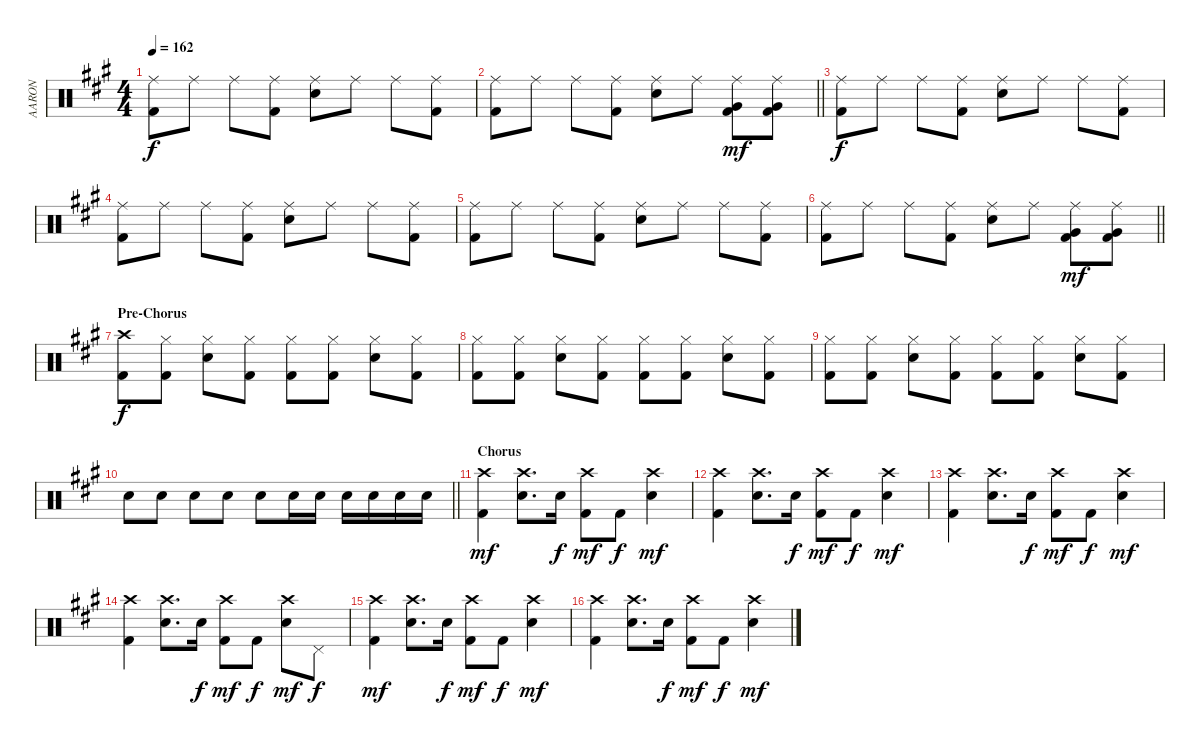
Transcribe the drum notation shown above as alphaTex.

\track ("AARON" "AARON") {instrument percussion}
\staff {score}
\articulation defaults
\ts (4 4)
\tempo 162
\clef neutral
\ks a
("Ride (middle)" "Kick (hit) 2").8{dy f} "Ride (middle)".8 "Ride (middle)".8 ("Ride (middle)" "Kick (hit) 2").8 ("Ride (middle)" "Electric Snare (hit)").8 "Ride (middle)".8 "Ride (middle)".8 ("Ride (middle)" "Kick (hit) 2").8 |
\barLineRight lightlight
("Ride (middle)" "Kick (hit) 2").8 "Ride (middle)".8 "Ride (middle)".8 ("Ride (middle)" "Kick (hit) 2").8 ("Ride (middle)" "Electric Snare (hit)").8 "Ride (middle)".8 ("Ride (middle)" "Very Low Tom (hit)" "Kick (hit) 2").8{dy mf} ("Ride (middle)" "Very Low Tom (hit)" "Kick (hit) 2").8 |
("Ride (middle)" "Kick (hit) 2").8{dy f} "Ride (middle)".8 "Ride (middle)".8 ("Ride (middle)" "Kick (hit) 2").8 ("Ride (middle)" "Electric Snare (hit)").8 "Ride (middle)".8 "Ride (middle)".8 ("Ride (middle)" "Kick (hit) 2").8 |
("Ride (middle)" "Kick (hit) 2").8 "Ride (middle)".8 "Ride (middle)".8 ("Ride (middle)" "Kick (hit) 2").8 ("Ride (middle)" "Electric Snare (hit)").8 "Ride (middle)".8 "Ride (middle)".8 ("Ride (middle)" "Kick (hit) 2").8 |
("Ride (middle)" "Kick (hit) 2").8 "Ride (middle)".8 "Ride (middle)".8 ("Ride (middle)" "Kick (hit) 2").8 ("Ride (middle)" "Electric Snare (hit)").8 "Ride (middle)".8 "Ride (middle)".8 ("Ride (middle)" "Kick (hit) 2").8 |
\barLineRight lightlight
("Ride (middle)" "Kick (hit) 2").8 "Ride (middle)".8 "Ride (middle)".8 ("Ride (middle)" "Kick (hit) 2").8 ("Ride (middle)" "Electric Snare (hit)").8 "Ride (middle)".8 ("Ride (middle)" "Very Low Tom (hit)" "Kick (hit) 2").8{dy mf} ("Ride (middle)" "Very Low Tom (hit)" "Kick (hit) 2").8 |
\section ("" "Pre-Chorus")
("Crash high (hit)" "Kick (hit) 2").8{dy f} ("Hi-Hat (closed)" "Kick (hit) 2").8 ("Hi-Hat (closed)" "Electric Snare (hit)").8 ("Hi-Hat (closed)" "Kick (hit) 2").8 ("Hi-Hat (closed)" "Kick (hit) 2").8 ("Hi-Hat (closed)" "Kick (hit) 2").8 ("Hi-Hat (closed)" "Electric Snare (hit)").8 ("Hi-Hat (closed)" "Kick (hit) 2").8 |
("Hi-Hat (closed)" "Kick (hit) 2").8 ("Hi-Hat (closed)" "Kick (hit) 2").8 ("Hi-Hat (closed)" "Electric Snare (hit)").8 ("Hi-Hat (closed)" "Kick (hit) 2").8 ("Hi-Hat (closed)" "Kick (hit) 2").8 ("Hi-Hat (closed)" "Kick (hit) 2").8 ("Hi-Hat (closed)" "Electric Snare (hit)").8 ("Hi-Hat (closed)" "Kick (hit) 2").8 |
("Hi-Hat (closed)" "Kick (hit) 2").8 ("Hi-Hat (closed)" "Kick (hit) 2").8 ("Hi-Hat (closed)" "Electric Snare (hit)").8 ("Hi-Hat (closed)" "Kick (hit) 2").8 ("Hi-Hat (closed)" "Kick (hit) 2").8 ("Hi-Hat (closed)" "Kick (hit) 2").8 ("Hi-Hat (closed)" "Electric Snare (hit)").8 ("Hi-Hat (closed)" "Kick (hit) 2").8 |
\barLineRight lightlight "Electric Snare (hit)".8 "Electric Snare (hit)".8 "Electric Snare (hit)".8 "Electric Snare (hit)".8 "Electric Snare (hit)".8 "Electric Snare (hit)".16 "Electric Snare (hit)".16 "Electric Snare (hit)".16 "Electric Snare (hit)".16 "Electric Snare (hit)".16 "Electric Snare (hit)".16
|
\section ("" "Chorus")
("Crash high (hit)" "Kick (hit) 2").4{dy mf} ("Crash high (hit)" "Electric Snare (hit)").8{d} "Electric Snare (hit)".16{dy f} ("Crash high (hit)" "Kick (hit) 2").8{dy mf} "Kick (hit) 2".8{dy f} ("Crash high (hit)" "Electric Snare (hit)").4{dy mf} |
("Crash high (hit)" "Kick (hit) 2").4 ("Crash high (hit)" "Electric Snare (hit)").8{d} "Electric Snare (hit)".16{dy f} ("Crash high (hit)" "Kick (hit) 2").8{dy mf} "Kick (hit) 2".8{dy f} ("Crash high (hit)" "Electric Snare (hit)").4{dy mf} |
("Crash high (hit)" "Kick (hit) 2").4 ("Crash high (hit)" "Electric Snare (hit)").8{d} "Electric Snare (hit)".16{dy f} ("Crash high (hit)" "Kick (hit) 2").8{dy mf} "Kick (hit) 2".8{dy f} ("Crash high (hit)" "Electric Snare (hit)").4{dy mf} |
("Crash high (hit)" "Kick (hit) 2").4 ("Crash high (hit)" "Electric Snare (hit)").8{d} "Electric Snare (hit)".16{dy f} ("Crash high (hit)" "Kick (hit) 2").8{dy mf} "Kick (hit) 2".8{dy f} ("Crash high (hit)" "Electric Snare (hit)").8{dy mf} "Pedal Hi-Hat (hit)".8{dy f} |
("Crash high (hit)" "Kick (hit) 2").4{dy mf} ("Crash high (hit)" "Electric Snare (hit)").8{d} "Electric Snare (hit)".16{dy f} ("Crash high (hit)" "Kick (hit) 2").8{dy mf} "Kick (hit) 2".8{dy f} ("Crash high (hit)" "Electric Snare (hit)").4{dy mf} |
("Crash high (hit)" "Kick (hit) 2").4 ("Crash high (hit)" "Electric Snare (hit)").8{d} "Electric Snare (hit)".16{dy f} ("Crash high (hit)" "Kick (hit) 2").8{dy mf} "Kick (hit) 2".8{dy f} ("Crash high (hit)" "Electric Snare (hit)").4{dy mf}
